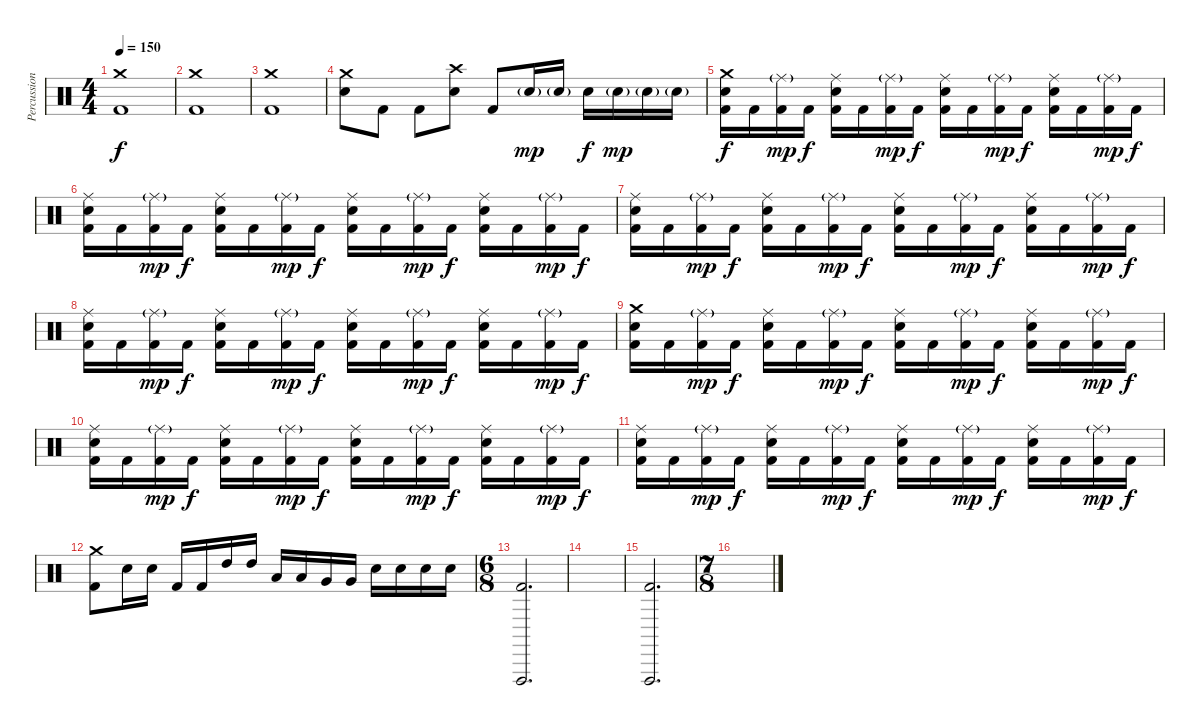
\track ("Percussions" "Percussion") {instrument percussion}
\staff {score}
\articulation defaults
\ts (4 4)
\tempo 150
\clef neutral
\ks c
("Crash medium (hit)" "Kick (hit) 2").1{dy f} |
("Crash medium (hit)" "Kick (hit) 2").1 |
("Crash medium (hit)" "Kick (hit) 2").1 |
("Crash medium (hit)" "Snare (hit) 2").8 "Kick (hit) 2".8 "Kick (hit) 2".8 ("Crash high (hit)" "Snare (hit) 2").8 "Kick (hit) 2".8 "Snare (hit) 2"{g}.16{dy mp} "Snare (hit) 2"{g}.16 "Snare (hit) 2".16{dy f} "Snare (hit) 2"{g}.16{dy mp} "Snare (hit) 2"{g}.16 "Snare (hit) 2"{g}.16 |
("Crash medium (hit)" "Snare (hit) 2" "Kick (hit) 2").16{dy f} "Kick (hit) 2".16 ("Ride (middle)"{g} "Kick (hit) 2").16{dy mp} "Kick (hit) 2".16{dy f} ("Ride (middle)" "Snare (hit) 2" "Kick (hit) 2").16 "Kick (hit) 2".16 ("Ride (middle)"{g} "Kick (hit) 2").16{dy mp} "Kick (hit) 2".16{dy f} ("Ride (middle)" "Snare (hit) 2" "Kick (hit) 2").16 "Kick (hit) 2".16 ("Ride (middle)"{g} "Kick (hit) 2").16{dy mp} "Kick (hit) 2".16{dy f} ("Ride (middle)" "Snare (hit) 2" "Kick (hit) 2").16 "Kick (hit) 2".16 ("Ride (middle)"{g} "Kick (hit) 2").16{dy mp} "Kick (hit) 2".16{dy f} |
("Ride (middle)" "Snare (hit) 2" "Kick (hit) 2").16 "Kick (hit) 2".16 ("Ride (middle)"{g} "Kick (hit) 2").16{dy mp} "Kick (hit) 2".16{dy f} ("Ride (middle)" "Snare (hit) 2" "Kick (hit) 2").16 "Kick (hit) 2".16 ("Ride (middle)"{g} "Kick (hit) 2").16{dy mp} "Kick (hit) 2".16{dy f} ("Ride (middle)" "Snare (hit) 2" "Kick (hit) 2").16 "Kick (hit) 2".16 ("Ride (middle)"{g} "Kick (hit) 2").16{dy mp} "Kick (hit) 2".16{dy f} ("Ride (middle)" "Snare (hit) 2" "Kick (hit) 2").16 "Kick (hit) 2".16 ("Ride (middle)"{g} "Kick (hit) 2").16{dy mp} "Kick (hit) 2".16{dy f} |
("Ride (middle)" "Snare (hit) 2" "Kick (hit) 2").16 "Kick (hit) 2".16 ("Ride (middle)"{g} "Kick (hit) 2").16{dy mp} "Kick (hit) 2".16{dy f} ("Ride (middle)" "Snare (hit) 2" "Kick (hit) 2").16 "Kick (hit) 2".16 ("Ride (middle)"{g} "Kick (hit) 2").16{dy mp} "Kick (hit) 2".16{dy f} ("Ride (middle)" "Snare (hit) 2" "Kick (hit) 2").16 "Kick (hit) 2".16 ("Ride (middle)"{g} "Kick (hit) 2").16{dy mp} "Kick (hit) 2".16{dy f} ("Ride (middle)" "Snare (hit) 2" "Kick (hit) 2").16 "Kick (hit) 2".16 ("Ride (middle)"{g} "Kick (hit) 2").16{dy mp} "Kick (hit) 2".16{dy f} |
("Ride (middle)" "Snare (hit) 2" "Kick (hit) 2").16 "Kick (hit) 2".16 ("Ride (middle)"{g} "Kick (hit) 2").16{dy mp} "Kick (hit) 2".16{dy f} ("Ride (middle)" "Snare (hit) 2" "Kick (hit) 2").16 "Kick (hit) 2".16 ("Ride (middle)"{g} "Kick (hit) 2").16{dy mp} "Kick (hit) 2".16{dy f} ("Ride (middle)" "Snare (hit) 2" "Kick (hit) 2").16 "Kick (hit) 2".16 ("Ride (middle)"{g} "Kick (hit) 2").16{dy mp} "Kick (hit) 2".16{dy f} ("Ride (middle)" "Snare (hit) 2" "Kick (hit) 2").16 "Kick (hit) 2".16 ("Ride (middle)"{g} "Kick (hit) 2").16{dy mp} "Kick (hit) 2".16{dy f} |
("Crash medium (hit)" "Snare (hit) 2" "Kick (hit) 2").16 "Kick (hit) 2".16 ("Ride (middle)"{g} "Kick (hit) 2").16{dy mp} "Kick (hit) 2".16{dy f} ("Ride (middle)" "Snare (hit) 2" "Kick (hit) 2").16 "Kick (hit) 2".16 ("Ride (middle)"{g} "Kick (hit) 2").16{dy mp} "Kick (hit) 2".16{dy f} ("Ride (middle)" "Snare (hit) 2" "Kick (hit) 2").16 "Kick (hit) 2".16 ("Ride (middle)"{g} "Kick (hit) 2").16{dy mp} "Kick (hit) 2".16{dy f} ("Ride (middle)" "Snare (hit) 2" "Kick (hit) 2").16 "Kick (hit) 2".16 ("Ride (middle)"{g} "Kick (hit) 2").16{dy mp} "Kick (hit) 2".16{dy f} |
("Ride (middle)" "Snare (hit) 2" "Kick (hit) 2").16 "Kick (hit) 2".16 ("Ride (middle)"{g} "Kick (hit) 2").16{dy mp} "Kick (hit) 2".16{dy f} ("Ride (middle)" "Snare (hit) 2" "Kick (hit) 2").16 "Kick (hit) 2".16 ("Ride (middle)"{g} "Kick (hit) 2").16{dy mp} "Kick (hit) 2".16{dy f} ("Ride (middle)" "Snare (hit) 2" "Kick (hit) 2").16 "Kick (hit) 2".16 ("Ride (middle)"{g} "Kick (hit) 2").16{dy mp} "Kick (hit) 2".16{dy f} ("Ride (middle)" "Snare (hit) 2" "Kick (hit) 2").16 "Kick (hit) 2".16 ("Ride (middle)"{g} "Kick (hit) 2").16{dy mp} "Kick (hit) 2".16{dy f} |
("Ride (middle)" "Snare (hit) 2" "Kick (hit) 2").16 "Kick (hit) 2".16 ("Ride (middle)"{g} "Kick (hit) 2").16{dy mp} "Kick (hit) 2".16{dy f} ("Ride (middle)" "Snare (hit) 2" "Kick (hit) 2").16 "Kick (hit) 2".16 ("Ride (middle)"{g} "Kick (hit) 2").16{dy mp} "Kick (hit) 2".16{dy f} ("Ride (middle)" "Snare (hit) 2" "Kick (hit) 2").16 "Kick (hit) 2".16 ("Ride (middle)"{g} "Kick (hit) 2").16{dy mp} "Kick (hit) 2".16{dy f} ("Ride (middle)" "Snare (hit) 2" "Kick (hit) 2").16 "Kick (hit) 2".16 ("Ride (middle)"{g} "Kick (hit) 2").16{dy mp} "Kick (hit) 2".16{dy f} |
("Crash medium (hit)" "Kick (hit) 2").8 "Snare (hit) 2".16 "Snare (hit) 2".16 "Kick (hit) 2".16 "Kick (hit) 2".16 "High Tom (hit)".16 "High Tom (hit)".16 "Low Tom (hit)".16 "Low Tom (hit)".16 "Very Low Tom (hit)".16 "Very Low Tom (hit)".16 "Snare (hit) 2".16 "Snare (hit) 2".16 "Snare (hit) 2".16 "Snare (hit) 2".16 |
\ts (6 8)
("Vibraslap (hit)" "Kick (hit) 2").2{d} |
|
("Vibraslap (hit)" "Kick (hit) 2").2{d} |
\ts (7 8)
